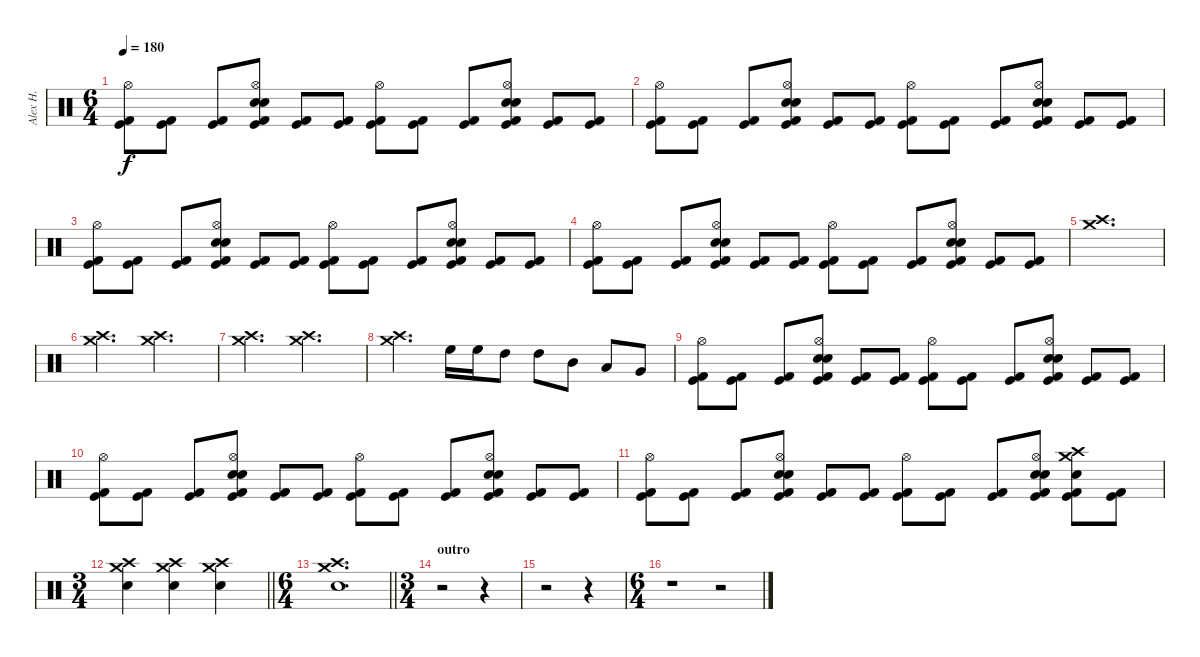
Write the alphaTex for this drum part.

\track ("Alex H." "Alex H.") {instrument percussion}
\staff {score}
\articulation defaults
\ts (6 4)
\tempo 180
\clef neutral
\ks c
("Kick (hit) 2" "Kick (hit)" "Hi-Hat (open)").8{dy f} ("Kick (hit) 2" "Kick (hit)").8 ("Kick (hit) 2" "Kick (hit)").8 ("Kick (hit) 2" "Kick (hit)" "Snare (hit) 2" "Hi-Hat (open)" "Electric Snare (hit)").8 ("Kick (hit) 2" "Kick (hit)").8 ("Kick (hit) 2" "Kick (hit)").8 ("Kick (hit) 2" "Kick (hit)" "Hi-Hat (open)").8 ("Kick (hit) 2" "Kick (hit)").8 ("Kick (hit) 2" "Kick (hit)").8 ("Kick (hit) 2" "Kick (hit)" "Snare (hit) 2" "Electric Snare (hit)" "Hi-Hat (open)").8 ("Kick (hit) 2" "Kick (hit)").8 ("Kick (hit) 2" "Kick (hit)").8 |
("Kick (hit) 2" "Kick (hit)" "Hi-Hat (open)").8 ("Kick (hit) 2" "Kick (hit)").8 ("Kick (hit) 2" "Kick (hit)").8 ("Kick (hit) 2" "Kick (hit)" "Snare (hit) 2" "Hi-Hat (open)" "Electric Snare (hit)").8 ("Kick (hit) 2" "Kick (hit)").8 ("Kick (hit) 2" "Kick (hit)").8 ("Kick (hit) 2" "Kick (hit)" "Hi-Hat (open)").8 ("Kick (hit) 2" "Kick (hit)").8 ("Kick (hit) 2" "Kick (hit)").8 ("Kick (hit) 2" "Kick (hit)" "Snare (hit) 2" "Electric Snare (hit)" "Hi-Hat (open)").8 ("Kick (hit) 2" "Kick (hit)").8 ("Kick (hit) 2" "Kick (hit)").8 |
("Kick (hit) 2" "Kick (hit)" "Hi-Hat (open)").8 ("Kick (hit) 2" "Kick (hit)").8 ("Kick (hit) 2" "Kick (hit)").8 ("Kick (hit) 2" "Kick (hit)" "Snare (hit) 2" "Hi-Hat (open)" "Electric Snare (hit)").8 ("Kick (hit) 2" "Kick (hit)").8 ("Kick (hit) 2" "Kick (hit)").8 ("Kick (hit) 2" "Kick (hit)" "Hi-Hat (open)").8 ("Kick (hit) 2" "Kick (hit)").8 ("Kick (hit) 2" "Kick (hit)").8 ("Kick (hit) 2" "Kick (hit)" "Snare (hit) 2" "Electric Snare (hit)" "Hi-Hat (open)").8 ("Kick (hit) 2" "Kick (hit)").8 ("Kick (hit) 2" "Kick (hit)").8 |
("Kick (hit) 2" "Kick (hit)" "Hi-Hat (open)").8 ("Kick (hit) 2" "Kick (hit)").8 ("Kick (hit) 2" "Kick (hit)").8 ("Kick (hit) 2" "Kick (hit)" "Snare (hit) 2" "Hi-Hat (open)" "Electric Snare (hit)").8 ("Kick (hit) 2" "Kick (hit)").8 ("Kick (hit) 2" "Kick (hit)").8 ("Kick (hit) 2" "Kick (hit)" "Hi-Hat (open)").8 ("Kick (hit) 2" "Kick (hit)").8 ("Kick (hit) 2" "Kick (hit)").8 ("Kick (hit) 2" "Kick (hit)" "Snare (hit) 2" "Electric Snare (hit)" "Hi-Hat (open)").8 ("Kick (hit) 2" "Kick (hit)").8 ("Kick (hit) 2" "Kick (hit)").8 |
("Crash medium (hit)" "Crash high (hit)").1{d} |
("Crash medium (hit)" "Crash high (hit)").2{d} ("Crash medium (hit)" "Crash high (hit)").2{d} |
("Crash medium (hit)" "Crash high (hit)").2{d} ("Crash medium (hit)" "Crash high (hit)").2{d} |
("Crash medium (hit)" "Crash high (hit)").2{d} "High Floor Tom (hit)".16 "High Floor Tom (hit)".16 "High Tom (hit)".8 "High Tom (hit)".8 "Mid Tom (hit)".8 "Low Tom (hit)".8 "Very Low Tom (hit)".8 |
("Kick (hit) 2" "Kick (hit)" "Hi-Hat (open)").8 ("Kick (hit) 2" "Kick (hit)").8 ("Kick (hit) 2" "Kick (hit)").8 ("Kick (hit) 2" "Kick (hit)" "Snare (hit) 2" "Hi-Hat (open)" "Electric Snare (hit)").8 ("Kick (hit) 2" "Kick (hit)").8 ("Kick (hit) 2" "Kick (hit)").8 ("Kick (hit) 2" "Kick (hit)" "Hi-Hat (open)").8 ("Kick (hit) 2" "Kick (hit)").8 ("Kick (hit) 2" "Kick (hit)").8 ("Kick (hit) 2" "Kick (hit)" "Snare (hit) 2" "Electric Snare (hit)" "Hi-Hat (open)").8 ("Kick (hit) 2" "Kick (hit)").8 ("Kick (hit) 2" "Kick (hit)").8 |
("Kick (hit) 2" "Kick (hit)" "Hi-Hat (open)").8 ("Kick (hit) 2" "Kick (hit)").8 ("Kick (hit) 2" "Kick (hit)").8 ("Kick (hit) 2" "Kick (hit)" "Snare (hit) 2" "Hi-Hat (open)" "Electric Snare (hit)").8 ("Kick (hit) 2" "Kick (hit)").8 ("Kick (hit) 2" "Kick (hit)").8 ("Kick (hit) 2" "Kick (hit)" "Hi-Hat (open)").8 ("Kick (hit) 2" "Kick (hit)").8 ("Kick (hit) 2" "Kick (hit)").8 ("Kick (hit) 2" "Kick (hit)" "Snare (hit) 2" "Electric Snare (hit)" "Hi-Hat (open)").8 ("Kick (hit) 2" "Kick (hit)").8 ("Kick (hit) 2" "Kick (hit)").8 |
("Kick (hit) 2" "Kick (hit)" "Hi-Hat (open)").8 ("Kick (hit) 2" "Kick (hit)").8 ("Kick (hit) 2" "Kick (hit)").8 ("Kick (hit) 2" "Kick (hit)" "Snare (hit) 2" "Hi-Hat (open)" "Electric Snare (hit)").8 ("Kick (hit) 2" "Kick (hit)").8 ("Kick (hit) 2" "Kick (hit)").8 ("Kick (hit) 2" "Kick (hit)" "Hi-Hat (open)").8 ("Kick (hit) 2" "Kick (hit)").8 ("Kick (hit) 2" "Kick (hit)").8 ("Kick (hit) 2" "Kick (hit)" "Snare (hit) 2" "Electric Snare (hit)" "Hi-Hat (open)").8 ("Kick (hit) 2" "Kick (hit)" "Snare (hit) 2" "Crash high (hit)" "Crash medium (hit)").8 ("Kick (hit) 2" "Kick (hit)").8 |
\ts (3 4)
\barLineRight lightlight
("Snare (hit) 2" "Crash medium (hit)" "Crash high (hit)").4 ("Snare (hit) 2" "Crash medium (hit)" "Crash high (hit)").4 ("Snare (hit) 2" "Crash medium (hit)" "Crash high (hit)").4 |
\ts (6 4)
\barLineRight lightlight
("Snare (hit) 2" "Crash high (hit)" "Crash medium (hit)").1{d} |
\ts (3 4)
\section ("" "outro")
r.2 r.4 |
r.2 r.4 |
\ts (6 4)
r.1 r.2
